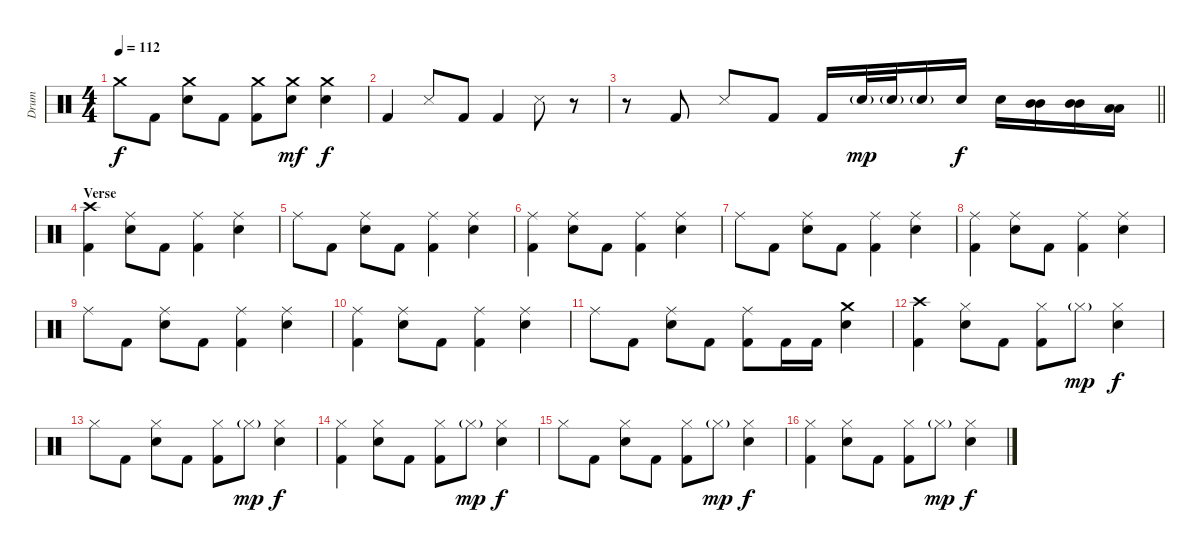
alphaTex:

\track ("Drum" "Drum") {instrument percussion}
\staff {score}
\articulation defaults
\ts (4 4)
\tempo 112
\clef neutral
\ks c "Crash medium (hit)".8{dy f} "Kick (hit) 2".8
("Crash medium (hit)" "Electric Snare (hit)").8 "Kick (hit) 2".8 ("Crash medium (hit)" "Kick (hit) 2").8 ("Crash medium (hit)" "Electric Snare (hit)").8{dy mf} ("Crash medium (hit)" "Electric Snare (hit)").4{dy f} |
"Kick (hit) 2".4 "Snare (side stick) 3".8 "Kick (hit) 2".8 "Kick (hit) 2".4 "Snare (side stick) 3".8 r.8 |
\barLineRight lightlight
r.8 "Kick (hit) 2".8 "Snare (side stick) 3".8 "Kick (hit) 2".8 "Kick (hit) 2".16 "Electric Snare (hit)"{g}.32{dy mp} "Electric Snare (hit)"{g}.32 "Electric Snare (hit)"{g}.16 "Electric Snare (hit)".16{dy f} "Electric Snare (hit)".16 ("Mid Tom (hit)" "Mid Tom (hit)").16 ("Mid Tom (hit)" "Mid Tom (hit)").16 ("Low Tom (hit)" "Low Tom (hit)").16 |
\section ("" "Verse")
("Crash high (hit)" "Kick (hit) 2").4 ("Ride (middle)" "Electric Snare (hit)").8 "Kick (hit) 2".8 ("Ride (middle)" "Kick (hit) 2").4 ("Ride (middle)" "Electric Snare (hit)").4 |
"Ride (middle)".8 "Kick (hit) 2".8 ("Ride (middle)" "Electric Snare (hit)").8 "Kick (hit) 2".8 ("Ride (middle)" "Kick (hit) 2").4 ("Ride (middle)" "Electric Snare (hit)").4 |
("Ride (middle)" "Kick (hit) 2").4 ("Ride (middle)" "Electric Snare (hit)").8 "Kick (hit) 2".8 ("Ride (middle)" "Kick (hit) 2").4 ("Ride (middle)" "Electric Snare (hit)").4 |
"Ride (middle)".8 "Kick (hit) 2".8 ("Ride (middle)" "Electric Snare (hit)").8 "Kick (hit) 2".8 ("Ride (middle)" "Kick (hit) 2").4 ("Ride (middle)" "Electric Snare (hit)").4 |
("Ride (middle)" "Kick (hit) 2").4 ("Ride (middle)" "Electric Snare (hit)").8 "Kick (hit) 2".8 ("Ride (middle)" "Kick (hit) 2").4 ("Ride (middle)" "Electric Snare (hit)").4 |
"Ride (middle)".8 "Kick (hit) 2".8 ("Ride (middle)" "Electric Snare (hit)").8 "Kick (hit) 2".8 ("Ride (middle)" "Kick (hit) 2").4 ("Ride (middle)" "Electric Snare (hit)").4 |
("Ride (middle)" "Kick (hit) 2").4 ("Ride (middle)" "Electric Snare (hit)").8 "Kick (hit) 2".8 ("Ride (middle)" "Kick (hit) 2").4 ("Ride (middle)" "Electric Snare (hit)").4 |
"Ride (middle)".8 "Kick (hit) 2".8 ("Ride (middle)" "Electric Snare (hit)").8 "Kick (hit) 2".8 ("Ride (middle)" "Kick (hit) 2").8 "Kick (hit) 2".16 "Kick (hit) 2".16 ("Crash medium (hit)" "Electric Snare (hit)").4 |
("Crash high (hit)" "Kick (hit) 2").4 ("Hi-Hat (closed)" "Electric Snare (hit)").8 "Kick (hit) 2".8 ("Hi-Hat (closed)" "Kick (hit) 2").8 "Hi-Hat (closed)"{g}.8{dy mp} ("Hi-Hat (closed)" "Electric Snare (hit)").4{dy f} |
"Hi-Hat (closed)".8 "Kick (hit) 2".8 ("Hi-Hat (closed)" "Electric Snare (hit)").8 "Kick (hit) 2".8 ("Hi-Hat (closed)" "Kick (hit) 2").8 "Hi-Hat (closed)"{g}.8{dy mp} ("Hi-Hat (closed)" "Electric Snare (hit)").4{dy f} |
("Hi-Hat (closed)" "Kick (hit) 2").4 ("Hi-Hat (closed)" "Electric Snare (hit)").8 "Kick (hit) 2".8 ("Hi-Hat (closed)" "Kick (hit) 2").8 "Hi-Hat (closed)"{g}.8{dy mp} ("Hi-Hat (closed)" "Electric Snare (hit)").4{dy f} |
"Hi-Hat (closed)".8 "Kick (hit) 2".8 ("Hi-Hat (closed)" "Electric Snare (hit)").8 "Kick (hit) 2".8 ("Hi-Hat (closed)" "Kick (hit) 2").8 "Hi-Hat (closed)"{g}.8{dy mp} ("Hi-Hat (closed)" "Electric Snare (hit)").4{dy f} |
("Hi-Hat (closed)" "Kick (hit) 2").4 ("Hi-Hat (closed)" "Electric Snare (hit)").8 "Kick (hit) 2".8 ("Hi-Hat (closed)" "Kick (hit) 2").8 "Hi-Hat (closed)"{g}.8{dy mp} ("Hi-Hat (closed)" "Electric Snare (hit)").4{dy f}
